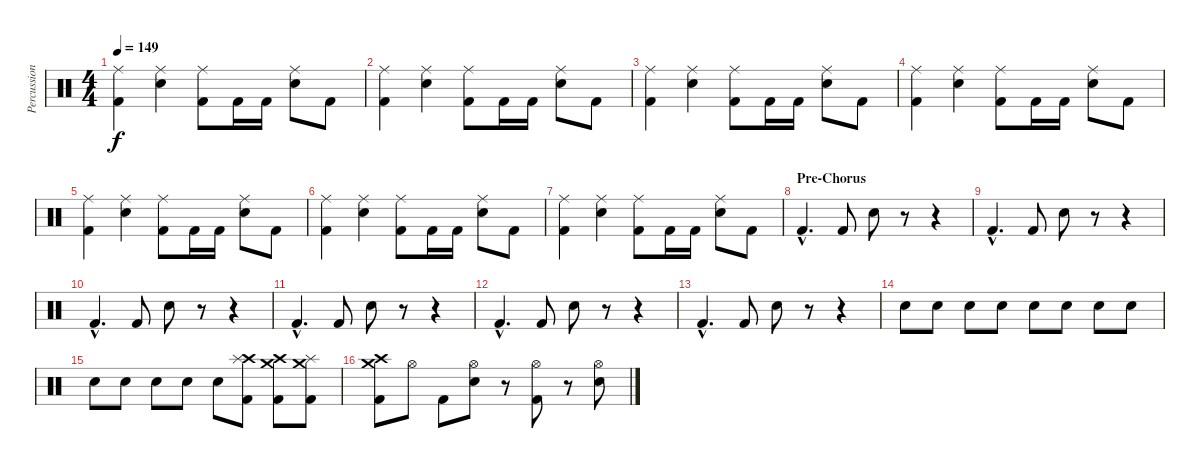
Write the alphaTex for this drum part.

\track ("Percussion" "Percussion") {instrument percussion}
\staff {score}
\articulation defaults
\ts (4 4)
\tempo 149
\clef neutral
\ks c
("Ride (middle)" "Kick (hit) 2").4{dy f} ("Ride (middle)" "Snare (hit) 2").4 ("Ride (middle)" "Kick (hit) 2").8 "Kick (hit) 2".16 "Kick (hit) 2".16 ("Ride (middle)" "Snare (hit) 2").8 "Kick (hit) 2".8 |
("Ride (middle)" "Kick (hit) 2").4 ("Ride (middle)" "Snare (hit) 2").4 ("Ride (middle)" "Kick (hit) 2").8 "Kick (hit) 2".16 "Kick (hit) 2".16 ("Ride (middle)" "Snare (hit) 2").8 "Kick (hit) 2".8 |
("Ride (middle)" "Kick (hit) 2").4 ("Ride (middle)" "Snare (hit) 2").4 ("Ride (middle)" "Kick (hit) 2").8 "Kick (hit) 2".16 "Kick (hit) 2".16 ("Ride (middle)" "Snare (hit) 2").8 "Kick (hit) 2".8 |
("Ride (middle)" "Kick (hit) 2").4 ("Ride (middle)" "Snare (hit) 2").4 ("Ride (middle)" "Kick (hit) 2").8 "Kick (hit) 2".16 "Kick (hit) 2".16 ("Ride (middle)" "Snare (hit) 2").8 "Kick (hit) 2".8 |
("Ride (middle)" "Kick (hit) 2").4 ("Ride (middle)" "Snare (hit) 2").4 ("Ride (middle)" "Kick (hit) 2").8 "Kick (hit) 2".16 "Kick (hit) 2".16 ("Ride (middle)" "Snare (hit) 2").8 "Kick (hit) 2".8 |
("Ride (middle)" "Kick (hit) 2").4 ("Ride (middle)" "Snare (hit) 2").4 ("Ride (middle)" "Kick (hit) 2").8 "Kick (hit) 2".16 "Kick (hit) 2".16 ("Ride (middle)" "Snare (hit) 2").8 "Kick (hit) 2".8 |
("Ride (middle)" "Kick (hit) 2").4 ("Ride (middle)" "Snare (hit) 2").4 ("Ride (middle)" "Kick (hit) 2").8 "Kick (hit) 2".16 "Kick (hit) 2".16 ("Ride (middle)" "Snare (hit) 2").8 "Kick (hit) 2".8 |
\section ("" "Pre-Chorus")
"Kick (hit) 2"{hac}.4{d} "Kick (hit) 2".8 "Snare (hit) 2".8 r.8 r.4 |
"Kick (hit) 2"{hac}.4{d} "Kick (hit) 2".8 "Snare (hit) 2".8 r.8 r.4 |
"Kick (hit) 2"{hac}.4{d} "Kick (hit) 2".8 "Snare (hit) 2".8 r.8 r.4 |
"Kick (hit) 2"{hac}.4{d} "Kick (hit) 2".8 "Snare (hit) 2".8 r.8 r.4 |
"Kick (hit) 2"{hac}.4{d} "Kick (hit) 2".8 "Snare (hit) 2".8 r.8 r.4 |
"Kick (hit) 2"{hac}.4{d} "Kick (hit) 2".8 "Snare (hit) 2".8 r.8 r.4 |
"Snare (hit) 2".8 "Snare (hit) 2".8 "Snare (hit) 2".8 "Snare (hit) 2".8 "Snare (hit) 2".8 "Snare (hit) 2".8 "Snare (hit) 2".8 "Snare (hit) 2".8 |
"Snare (hit) 2".8 "Snare (hit) 2".8 "Snare (hit) 2".8 "Snare (hit) 2".8 "Snare (hit) 2".8 ("Crash high (hit)" "Splash (hit)" "Kick (hit) 2").8 ("Crash medium (hit)" "Crash high (hit)" "Kick (hit) 2").8 ("Splash (hit)" "Crash medium (hit)" "Kick (hit) 2").8 |
("Crash medium (hit)" "Crash high (hit)" "Kick (hit) 2").8 "Hi-Hat (open)".8 "Kick (hit) 2".8 ("Hi-Hat (open)" "Snare (hit) 2").8 r.8 ("Hi-Hat (open)" "Kick (hit) 2").8 r.8 ("Hi-Hat (open)" "Snare (hit) 2").8
